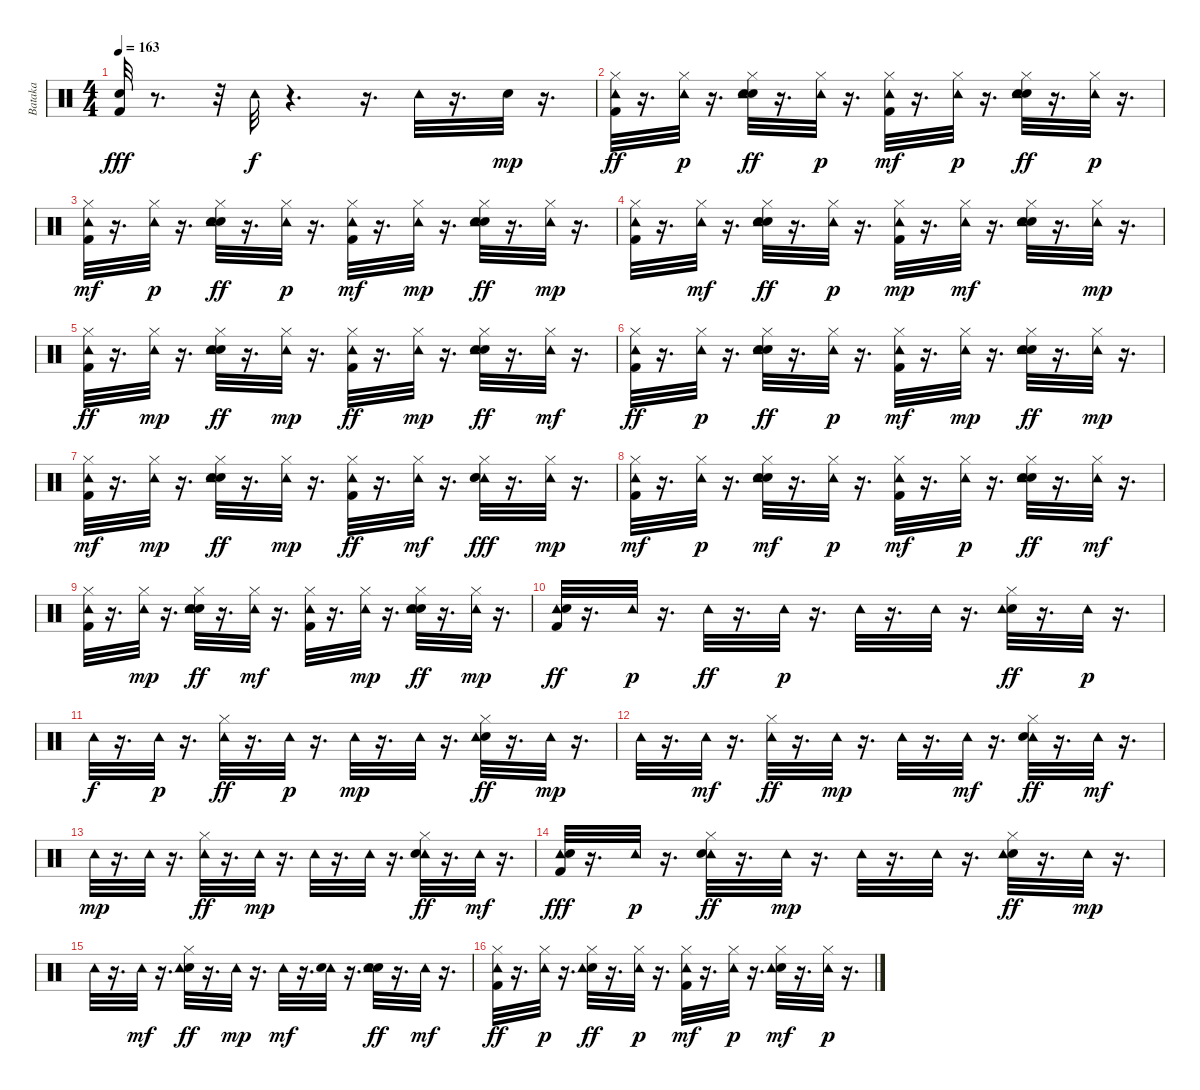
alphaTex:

\track ("Bataka" "Bataka") {instrument percussion}
\staff {score}
\articulation defaults
\ts (4 4)
\tempo 163
\clef neutral
\ks c
("Kick (hit) 2" "Electric Snare (hit)").32{dy fff} r.8{d} r.32 "Tambourine (hit)".32{dy f} r.4{d} r.16{d} "Tambourine (hit)".32 r.16{d} "Electric Snare (hit)".32{dy mp} r.16{d} |
("Tambourine (hit)" "Hi-Hat (closed)" "Kick (hit) 2").32{dy ff} r.16{d} ("Hi-Hat (closed)" "Tambourine (hit)").32{dy p} r.16{d} ("Electric Snare (hit)" "Tambourine (hit)" "Hi-Hat (closed)" "Hand Clap (hit)").32{dy ff} r.16{d} ("Hi-Hat (closed)" "Tambourine (hit)").32{dy p} r.16{d} ("Tambourine (hit)" "Kick (hit) 2" "Hi-Hat (closed)").32{dy mf} r.16{d} ("Tambourine (hit)" "Hi-Hat (closed)").32{dy p} r.16{d} ("Electric Snare (hit)" "Hi-Hat (closed)" "Hand Clap (hit)" "Tambourine (hit)").32{dy ff} r.16{d} ("Hi-Hat (closed)" "Tambourine (hit)").32{dy p} r.16{d} |
("Hi-Hat (closed)" "Tambourine (hit)" "Kick (hit) 2").32{dy mf} r.16{d} ("Hi-Hat (closed)" "Tambourine (hit)").32{dy p} r.16{d} ("Hi-Hat (closed)" "Electric Snare (hit)" "Tambourine (hit)" "Hand Clap (hit)").32{dy ff} r.16{d} ("Hi-Hat (closed)" "Tambourine (hit)").32{dy p} r.16{d} ("Tambourine (hit)" "Kick (hit) 2" "Hi-Hat (closed)").32{dy mf} r.16{d} ("Tambourine (hit)" "Hi-Hat (closed)").32{dy mp} r.16{d} ("Hand Clap (hit)" "Electric Snare (hit)" "Hi-Hat (closed)" "Tambourine (hit)").32{dy ff} r.16{d} ("Hi-Hat (closed)" "Tambourine (hit)").32{dy mp} r.16{d} |
("Hi-Hat (closed)" "Tambourine (hit)" "Kick (hit) 2").32 r.16{d} ("Hi-Hat (closed)" "Tambourine (hit)").32{dy mf} r.16{d} ("Hand Clap (hit)" "Electric Snare (hit)" "Hi-Hat (closed)" "Tambourine (hit)").32{dy ff} r.16{d} ("Tambourine (hit)" "Hi-Hat (closed)").32{dy p} r.16{d} ("Hi-Hat (closed)" "Kick (hit) 2" "Tambourine (hit)").32{dy mp} r.16{d} ("Hi-Hat (closed)" "Tambourine (hit)").32{dy mf} r.16{d} ("Electric Snare (hit)" "Tambourine (hit)" "Hand Clap (hit)" "Hi-Hat (closed)").32 r.16{d} ("Tambourine (hit)" "Hi-Hat (closed)").32{dy mp} r.16{d} |
("Tambourine (hit)" "Hi-Hat (closed)" "Kick (hit) 2").32{dy ff} r.16{d} ("Tambourine (hit)" "Hi-Hat (closed)").32{dy mp} r.16{d} ("Hi-Hat (closed)" "Hand Clap (hit)" "Electric Snare (hit)" "Tambourine (hit)").32{dy ff} r.16{d} ("Tambourine (hit)" "Hi-Hat (closed)").32{dy mp} r.16{d} ("Hi-Hat (closed)" "Tambourine (hit)" "Kick (hit) 2").32{dy ff} r.16{d} ("Tambourine (hit)" "Hi-Hat (closed)").32{dy mp} r.16{d} ("Hand Clap (hit)" "Electric Snare (hit)" "Tambourine (hit)" "Hi-Hat (closed)").32{dy ff} r.16{d} ("Hi-Hat (closed)" "Tambourine (hit)").32{dy mf} r.16{d} |
("Tambourine (hit)" "Kick (hit) 2" "Hi-Hat (closed)").32{dy ff} r.16{d} ("Tambourine (hit)" "Hi-Hat (closed)").32{dy p} r.16{d} ("Hand Clap (hit)" "Hi-Hat (closed)" "Electric Snare (hit)" "Tambourine (hit)").32{dy ff} r.16{d} ("Tambourine (hit)" "Hi-Hat (closed)").32{dy p} r.16{d} ("Kick (hit) 2" "Tambourine (hit)" "Hi-Hat (closed)").32{dy mf} r.16{d} ("Hi-Hat (closed)" "Tambourine (hit)").32{dy mp} r.16{d} ("Hand Clap (hit)" "Hi-Hat (closed)" "Electric Snare (hit)" "Tambourine (hit)").32{dy ff} r.16{d} ("Tambourine (hit)" "Hi-Hat (closed)").32{dy mp} r.16{d} |
("Tambourine (hit)" "Hi-Hat (closed)" "Kick (hit) 2").32{dy mf} r.16{d} ("Tambourine (hit)" "Hi-Hat (closed)").32{dy mp} r.16{d} ("Hi-Hat (closed)" "Hand Clap (hit)" "Electric Snare (hit)" "Tambourine (hit)").32{dy ff} r.16{d} ("Hi-Hat (closed)" "Tambourine (hit)").32{dy mp} r.16{d} ("Tambourine (hit)" "Hi-Hat (closed)" "Kick (hit) 2").32{dy ff} r.16{d} ("Hi-Hat (closed)" "Tambourine (hit)").32{dy mf} r.16{d} ("Hi-Hat (closed)" "Tambourine (hit)" "Hand Clap (hit)" "Electric Snare (hit)").32{dy fff} r.16{d} ("Tambourine (hit)" "Hi-Hat (closed)").32{dy mp} r.16{d} |
("Tambourine (hit)" "Hi-Hat (closed)" "Kick (hit) 2").32{dy mf} r.16{d} ("Tambourine (hit)" "Hi-Hat (closed)").32{dy p} r.16{d} ("Hand Clap (hit)" "Electric Snare (hit)" "Tambourine (hit)" "Hi-Hat (closed)").32{dy mf} r.16{d} ("Tambourine (hit)" "Hi-Hat (closed)").32{dy p} r.16{d} ("Tambourine (hit)" "Kick (hit) 2" "Hi-Hat (closed)").32{dy mf} r.16{d} ("Tambourine (hit)" "Hi-Hat (closed)").32{dy p} r.16{d} ("Hi-Hat (closed)" "Electric Snare (hit)" "Hand Clap (hit)" "Tambourine (hit)").32{dy ff} r.16{d} ("Hi-Hat (closed)" "Tambourine (hit)").32{dy mf} r.16{d} |
("Kick (hit) 2" "Hi-Hat (closed)" "Tambourine (hit)").32 r.16{d} ("Tambourine (hit)" "Hi-Hat (closed)").32{dy mp} r.16{d} ("Electric Snare (hit)" "Hand Clap (hit)" "Tambourine (hit)" "Hi-Hat (closed)").32{dy ff} r.16{d} ("Hi-Hat (closed)" "Tambourine (hit)").32{dy mf} r.16{d} ("Kick (hit) 2" "Tambourine (hit)" "Hi-Hat (closed)").32 r.16{d} ("Hi-Hat (closed)" "Tambourine (hit)").32{dy mp} r.16{d} ("Hi-Hat (closed)" "Hand Clap (hit)" "Tambourine (hit)" "Electric Snare (hit)").32{dy ff} r.16{d} ("Tambourine (hit)" "Hi-Hat (closed)").32{dy mp} r.16{d} |
("Kick (hit) 2" "Tambourine (hit)" "Electric Snare (hit)").32{dy ff} r.16{d} "Tambourine (hit)".32{dy p} r.16{d} "Tambourine (hit)".32{dy ff} r.16{d} "Tambourine (hit)".32{dy p} r.16{d} "Tambourine (hit)".32 r.16{d} "Tambourine (hit)".32 r.16{d} ("Hi-Hat (closed)" "Hand Clap (hit)" "Tambourine (hit)").32{dy ff} r.16{d} "Tambourine (hit)".32{dy p} r.16{d} |
"Tambourine (hit)".32{dy f} r.16{d} "Tambourine (hit)".32{dy p} r.16{d} ("Hi-Hat (closed)" "Tambourine (hit)").32{dy ff} r.16{d} "Tambourine (hit)".32{dy p} r.16{d} "Tambourine (hit)".32{dy mp} r.16{d} "Tambourine (hit)".32 r.16{d} ("Hand Clap (hit)" "Tambourine (hit)" "Hi-Hat (closed)").32{dy ff} r.16{d} "Tambourine (hit)".32{dy mp} r.16{d} |
"Tambourine (hit)".32 r.16{d} "Tambourine (hit)".32{dy mf} r.16{d} ("Tambourine (hit)" "Hi-Hat (closed)").32{dy ff} r.16{d} "Tambourine (hit)".32{dy mp} r.16{d} "Tambourine (hit)".32 r.16{d} "Tambourine (hit)".32{dy mf} r.16{d} ("Tambourine (hit)" "Hand Clap (hit)" "Hi-Hat (closed)").32{dy ff} r.16{d} "Tambourine (hit)".32{dy mf} r.16{d} |
"Tambourine (hit)".32{dy mp} r.16{d} "Tambourine (hit)".32 r.16{d} ("Hi-Hat (closed)" "Tambourine (hit)").32{dy ff} r.16{d} "Tambourine (hit)".32{dy mp} r.16{d} "Tambourine (hit)".32 r.16{d} "Tambourine (hit)".32 r.16{d} ("Tambourine (hit)" "Hand Clap (hit)" "Hi-Hat (closed)").32{dy ff} r.16{d} "Tambourine (hit)".32{dy mf} r.16{d} |
("Tambourine (hit)" "Electric Snare (hit)" "Kick (hit) 2").32{dy fff} r.16{d} "Tambourine (hit)".32{dy p} r.16{d} ("Tambourine (hit)" "Hand Clap (hit)" "Hi-Hat (closed)").32{dy ff} r.16{d} "Tambourine (hit)".32{dy mp} r.16{d} "Tambourine (hit)".32 r.16{d} "Tambourine (hit)".32 r.16{d} ("Hand Clap (hit)" "Tambourine (hit)" "Hi-Hat (closed)").32{dy ff} r.16{d} "Tambourine (hit)".32{dy mp} r.16{d} |
"Tambourine (hit)".32 r.16{d} "Tambourine (hit)".32{dy mf} r.16{d} ("Hand Clap (hit)" "Hi-Hat (closed)" "Tambourine (hit)").32{dy ff} r.16{d} "Tambourine (hit)".32{dy mp} r.16{d} "Tambourine (hit)".32{dy mf} r.16{d} ("Tambourine (hit)" "Electric Snare (hit)").32 r.16{d} ("Electric Snare (hit)" "Hand Clap (hit)" "Tambourine (hit)").32{dy ff} r.16{d} "Tambourine (hit)".32{dy mf} r.16{d} |
("Hi-Hat (closed)" "Tambourine (hit)" "Kick (hit) 2").32{dy ff} r.16{d} ("Tambourine (hit)" "Hi-Hat (closed)").32{dy p} r.16{d} ("Hi-Hat (closed)" "Electric Snare (hit)" "Tambourine (hit)").32{dy ff} r.16{d} ("Tambourine (hit)" "Hi-Hat (closed)").32{dy p} r.16{d} ("Tambourine (hit)" "Kick (hit) 2" "Hi-Hat (closed)").32{dy mf} r.16{d} ("Tambourine (hit)" "Hi-Hat (closed)").32{dy p} r.16{d} ("Electric Snare (hit)" "Tambourine (hit)" "Hi-Hat (closed)").32{dy mf} r.16{d} ("Hi-Hat (closed)" "Tambourine (hit)").32{dy p} r.16{d}
